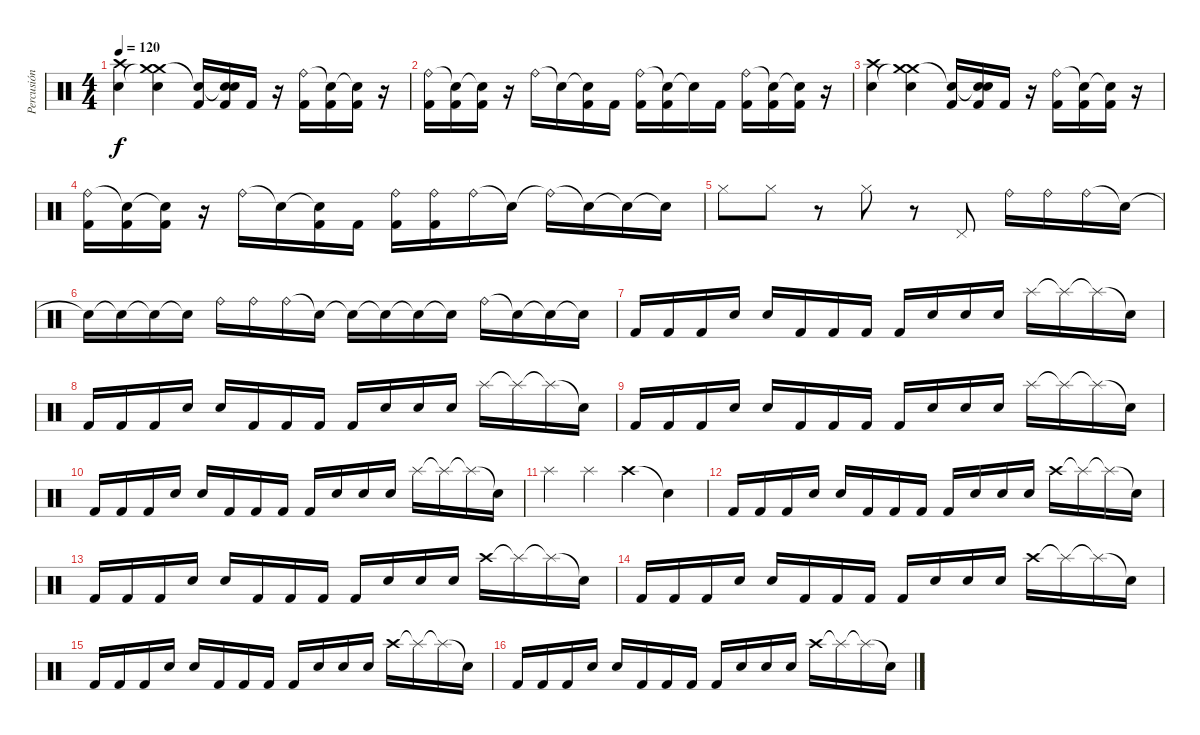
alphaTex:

\track ("Percusión" "Percusión") {instrument percussion}
\staff {score}
\articulation defaults
\ts (4 4)
\tempo 120
\clef neutral
\ks c
("Crash high (hit)" "Electric Snare (hit)").4{dy f} ("Crash medium (hit)" "Crash medium (hit)"{t} "Electric Snare (hit)").4 ("Snare (hit)"{t} "Kick (hit) 2").16 ("Snare (hit)"{t} "Electric Snare (hit)" "Kick (hit) 2").16 "Kick (hit) 2".16 r.16 ("Ride (bell)" "Kick (hit) 2").16 ("Snare (hit)"{t} "Kick (hit) 2").16 ("Snare (hit)"{t} "Kick (hit) 2").16 r.16 |
("Ride (bell)" "Kick (hit) 2").16 ("Snare (hit)"{t} "Kick (hit) 2").16 ("Snare (hit)"{t} "Kick (hit) 2").16 r.16 "Ride (bell)".16 "Snare (hit)"{t}.16 ("Snare (hit)"{t} "Kick (hit) 2").16 "Kick (hit) 2".16 ("Ride (bell)" "Kick (hit) 2").16 ("Snare (hit)"{t} "Kick (hit) 2").16 "Snare (hit)"{t}.16 "Kick (hit) 2".16 ("Ride (bell)" "Kick (hit) 2").16 ("Snare (hit)"{t} "Kick (hit) 2").16 ("Snare (hit)"{t} "Kick (hit) 2").16 r.16 |
("Crash high (hit)" "Electric Snare (hit)").4 ("Crash medium (hit)" "Crash medium (hit)"{t} "Electric Snare (hit)").4 ("Snare (hit)"{t} "Kick (hit) 2").16 ("Snare (hit)"{t} "Electric Snare (hit)" "Kick (hit) 2").16 "Kick (hit) 2".16 r.16 ("Ride (bell)" "Kick (hit) 2").16 ("Snare (hit)"{t} "Kick (hit) 2").16 ("Snare (hit)"{t} "Kick (hit) 2").16 r.16 |
("Ride (bell)" "Kick (hit) 2").16 ("Snare (hit)"{t} "Kick (hit) 2").16 ("Snare (hit)"{t} "Kick (hit) 2").16 r.16 "Ride (bell)".16 "Snare (hit)"{t}.16 ("Snare (hit)"{t} "Kick (hit) 2").16 "Kick (hit) 2".16 ("Ride (bell)" "Kick (hit) 2").16 ("Ride (bell)" "Kick (hit) 2").16 "Ride (bell)".16 "Snare (hit)"{t}.16 "Ride (bell)"{t}.16 "Snare (hit)"{t}.16 "Snare (hit)"{t}.16 "Snare (hit)"{t}.16 |
"Hi-Hat (closed)".8 "Hi-Hat (closed)".8 r.8 "Hi-Hat (closed)".8 r.8 "Pedal Hi-Hat (hit)".8 "Ride (bell)".16 "Ride (bell)".16 "Ride (bell)".16 "Snare (hit)"{t}.16 |
"Snare (hit)"{t}.16 "Snare (hit)"{t}.16 "Snare (hit)"{t}.16 "Snare (hit)"{t}.16 "Ride (bell)".16 "Ride (bell)".16 "Ride (bell)".16 "Snare (hit)"{t}.16 "Snare (hit)"{t}.16 "Snare (hit)"{t}.16 "Snare (hit)"{t}.16 "Snare (hit)"{t}.16 "Ride (bell)".16 "Snare (hit)"{t}.16 "Snare (hit)"{t}.16 "Snare (hit)"{t}.16 |
"Kick (hit) 2".16 "Kick (hit) 2".16 "Kick (hit) 2".16 "Electric Snare (hit)".16 "Electric Snare (hit)".16 "Kick (hit) 2".16 "Kick (hit) 2".16 "Kick (hit) 2".16 "Kick (hit) 2".16 "Electric Snare (hit)".16 "Electric Snare (hit)".16 "Electric Snare (hit)".16 "Splash (hit)".16 "Splash (hit)"{t}.16 "Splash (hit)"{t}.16 "Snare (hit)"{t}.16 |
"Kick (hit) 2".16 "Kick (hit) 2".16 "Kick (hit) 2".16 "Electric Snare (hit)".16 "Electric Snare (hit)".16 "Kick (hit) 2".16 "Kick (hit) 2".16 "Kick (hit) 2".16 "Kick (hit) 2".16 "Electric Snare (hit)".16 "Electric Snare (hit)".16 "Electric Snare (hit)".16 "Splash (hit)".16 "Splash (hit)"{t}.16 "Splash (hit)"{t}.16 "Snare (hit)"{t}.16 |
"Kick (hit) 2".16 "Kick (hit) 2".16 "Kick (hit) 2".16 "Electric Snare (hit)".16 "Electric Snare (hit)".16 "Kick (hit) 2".16 "Kick (hit) 2".16 "Kick (hit) 2".16 "Kick (hit) 2".16 "Electric Snare (hit)".16 "Electric Snare (hit)".16 "Electric Snare (hit)".16 "Splash (hit)".16 "Splash (hit)"{t}.16 "Splash (hit)"{t}.16 "Snare (hit)"{t}.16 |
"Kick (hit) 2".16 "Kick (hit) 2".16 "Kick (hit) 2".16 "Electric Snare (hit)".16 "Electric Snare (hit)".16 "Kick (hit) 2".16 "Kick (hit) 2".16 "Kick (hit) 2".16 "Kick (hit) 2".16 "Electric Snare (hit)".16 "Electric Snare (hit)".16 "Electric Snare (hit)".16 "Splash (hit)".16 "Splash (hit)"{t}.16 "Splash (hit)"{t}.16 "Snare (hit)"{t}.16 |
"Splash (hit)".4 "Splash (hit)".4 "Crash high (hit)".4 "Snare (hit)"{t}.4 |
"Kick (hit) 2".16 "Kick (hit) 2".16 "Kick (hit) 2".16 "Electric Snare (hit)".16 "Electric Snare (hit)".16 "Kick (hit) 2".16 "Kick (hit) 2".16 "Kick (hit) 2".16 "Kick (hit) 2".16 "Electric Snare (hit)".16 "Electric Snare (hit)".16 "Electric Snare (hit)".16 "Crash high (hit)".16 "Splash (hit)"{t}.16 "Splash (hit)"{t}.16 "Snare (hit)"{t}.16 |
"Kick (hit) 2".16 "Kick (hit) 2".16 "Kick (hit) 2".16 "Electric Snare (hit)".16 "Electric Snare (hit)".16 "Kick (hit) 2".16 "Kick (hit) 2".16 "Kick (hit) 2".16 "Kick (hit) 2".16 "Electric Snare (hit)".16 "Electric Snare (hit)".16 "Electric Snare (hit)".16 "Crash high (hit)".16 "Splash (hit)"{t}.16 "Splash (hit)"{t}.16 "Snare (hit)"{t}.16 |
"Kick (hit) 2".16 "Kick (hit) 2".16 "Kick (hit) 2".16 "Electric Snare (hit)".16 "Electric Snare (hit)".16 "Kick (hit) 2".16 "Kick (hit) 2".16 "Kick (hit) 2".16 "Kick (hit) 2".16 "Electric Snare (hit)".16 "Electric Snare (hit)".16 "Electric Snare (hit)".16 "Crash high (hit)".16 "Splash (hit)"{t}.16 "Splash (hit)"{t}.16 "Snare (hit)"{t}.16 |
"Kick (hit) 2".16 "Kick (hit) 2".16 "Kick (hit) 2".16 "Electric Snare (hit)".16 "Electric Snare (hit)".16 "Kick (hit) 2".16 "Kick (hit) 2".16 "Kick (hit) 2".16 "Kick (hit) 2".16 "Electric Snare (hit)".16 "Electric Snare (hit)".16 "Electric Snare (hit)".16 "Crash high (hit)".16 "Splash (hit)"{t}.16 "Splash (hit)"{t}.16 "Snare (hit)"{t}.16 |
"Kick (hit) 2".16 "Kick (hit) 2".16 "Kick (hit) 2".16 "Electric Snare (hit)".16 "Electric Snare (hit)".16 "Kick (hit) 2".16 "Kick (hit) 2".16 "Kick (hit) 2".16 "Kick (hit) 2".16 "Electric Snare (hit)".16 "Electric Snare (hit)".16 "Electric Snare (hit)".16 "Crash high (hit)".16 "Splash (hit)"{t}.16 "Splash (hit)"{t}.16 "Snare (hit)"{t}.16
